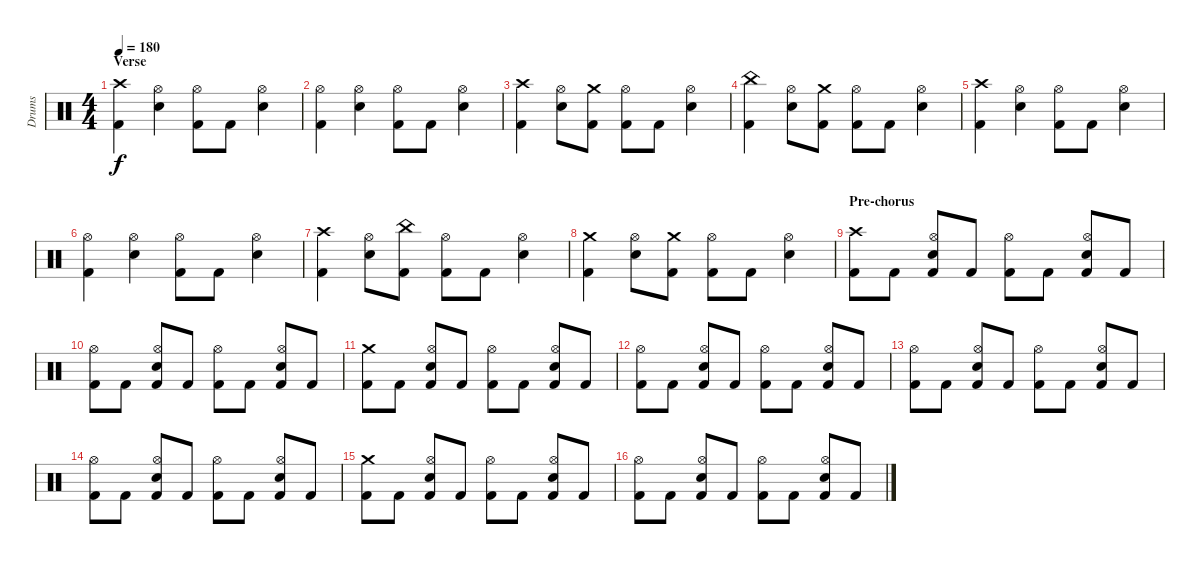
\track ("Drums" "Drums") {instrument percussion}
\staff {score}
\articulation defaults
\ts (4 4)
\section ("" "Verse")
\tempo 180
\clef neutral
\ks c
("Crash high (hit)" "Kick (hit) 2").4{dy f} ("Hi-Hat (open)" "Electric Snare (hit)").4 ("Hi-Hat (open)" "Kick (hit) 2").8 "Kick (hit) 2".8 ("Hi-Hat (open)" "Electric Snare (hit)").4 |
("Hi-Hat (open)" "Kick (hit) 2").4 ("Hi-Hat (open)" "Electric Snare (hit)").4 ("Hi-Hat (open)" "Kick (hit) 2").8 "Kick (hit) 2".8 ("Hi-Hat (open)" "Electric Snare (hit)").4 |
("Crash high (hit)" "Kick (hit) 2").4 ("Hi-Hat (open)" "Electric Snare (hit)").8 ("Crash medium (hit)" "Kick (hit) 2").8 ("Hi-Hat (open)" "Kick (hit) 2").8 "Kick (hit) 2".8 ("Hi-Hat (open)" "Electric Snare (hit)").4 |
("China (hit)" "Kick (hit) 2").4 ("Hi-Hat (open)" "Electric Snare (hit)").8 ("Crash medium (hit)" "Kick (hit) 2").8 ("Hi-Hat (open)" "Kick (hit) 2").8 "Kick (hit) 2".8 ("Hi-Hat (open)" "Electric Snare (hit)").4 |
("Crash high (hit)" "Kick (hit) 2").4 ("Hi-Hat (open)" "Electric Snare (hit)").4 ("Hi-Hat (open)" "Kick (hit) 2").8 "Kick (hit) 2".8 ("Hi-Hat (open)" "Electric Snare (hit)").4 |
("Hi-Hat (open)" "Kick (hit) 2").4 ("Hi-Hat (open)" "Electric Snare (hit)").4 ("Hi-Hat (open)" "Kick (hit) 2").8 "Kick (hit) 2".8 ("Hi-Hat (open)" "Electric Snare (hit)").4 |
("Crash high (hit)" "Kick (hit) 2").4 ("Hi-Hat (open)" "Electric Snare (hit)").8 ("China (hit)" "Kick (hit) 2").8 ("Hi-Hat (open)" "Kick (hit) 2").8 "Kick (hit) 2".8 ("Hi-Hat (open)" "Electric Snare (hit)").4 |
("Crash medium (hit)" "Kick (hit) 2").4 ("Hi-Hat (open)" "Electric Snare (hit)").8 ("Crash medium (hit)" "Kick (hit) 2").8 ("Hi-Hat (open)" "Kick (hit) 2").8 "Kick (hit) 2".8 ("Hi-Hat (open)" "Electric Snare (hit)").4 |
\section ("" "Pre-chorus")
("Crash high (hit)" "Kick (hit) 2").8 "Kick (hit) 2".8 ("Hi-Hat (open)" "Electric Snare (hit)" "Kick (hit) 2").8 "Kick (hit) 2".8 ("Hi-Hat (open)" "Kick (hit) 2").8 "Kick (hit) 2".8 ("Hi-Hat (open)" "Electric Snare (hit)" "Kick (hit) 2").8 "Kick (hit) 2".8 |
("Hi-Hat (open)" "Kick (hit) 2").8 "Kick (hit) 2".8 ("Hi-Hat (open)" "Electric Snare (hit)" "Kick (hit) 2").8 "Kick (hit) 2".8 ("Hi-Hat (open)" "Kick (hit) 2").8 "Kick (hit) 2".8 ("Hi-Hat (open)" "Electric Snare (hit)" "Kick (hit) 2").8 "Kick (hit) 2".8 |
("Crash medium (hit)" "Kick (hit) 2").8 "Kick (hit) 2".8 ("Hi-Hat (open)" "Electric Snare (hit)" "Kick (hit) 2").8 "Kick (hit) 2".8 ("Hi-Hat (open)" "Kick (hit) 2").8 "Kick (hit) 2".8 ("Hi-Hat (open)" "Electric Snare (hit)" "Kick (hit) 2").8 "Kick (hit) 2".8 |
("Hi-Hat (open)" "Kick (hit) 2").8 "Kick (hit) 2".8 ("Hi-Hat (open)" "Electric Snare (hit)" "Kick (hit) 2").8 "Kick (hit) 2".8 ("Hi-Hat (open)" "Kick (hit) 2").8 "Kick (hit) 2".8 ("Hi-Hat (open)" "Electric Snare (hit)" "Kick (hit) 2").8 "Kick (hit) 2".8 |
("Hi-Hat (open)" "Kick (hit) 2").8 "Kick (hit) 2".8 ("Hi-Hat (open)" "Electric Snare (hit)" "Kick (hit) 2").8 "Kick (hit) 2".8 ("Hi-Hat (open)" "Kick (hit) 2").8 "Kick (hit) 2".8 ("Hi-Hat (open)" "Electric Snare (hit)" "Kick (hit) 2").8 "Kick (hit) 2".8 |
("Hi-Hat (open)" "Kick (hit) 2").8 "Kick (hit) 2".8 ("Hi-Hat (open)" "Electric Snare (hit)" "Kick (hit) 2").8 "Kick (hit) 2".8 ("Hi-Hat (open)" "Kick (hit) 2").8 "Kick (hit) 2".8 ("Hi-Hat (open)" "Electric Snare (hit)" "Kick (hit) 2").8 "Kick (hit) 2".8 |
("Crash medium (hit)" "Kick (hit) 2").8 "Kick (hit) 2".8 ("Hi-Hat (open)" "Electric Snare (hit)" "Kick (hit) 2").8 "Kick (hit) 2".8 ("Hi-Hat (open)" "Kick (hit) 2").8 "Kick (hit) 2".8 ("Hi-Hat (open)" "Electric Snare (hit)" "Kick (hit) 2").8 "Kick (hit) 2".8 |
("Hi-Hat (open)" "Kick (hit) 2").8 "Kick (hit) 2".8 ("Hi-Hat (open)" "Electric Snare (hit)" "Kick (hit) 2").8 "Kick (hit) 2".8 ("Hi-Hat (open)" "Kick (hit) 2").8 "Kick (hit) 2".8 ("Hi-Hat (open)" "Electric Snare (hit)" "Kick (hit) 2").8 "Kick (hit) 2".8
